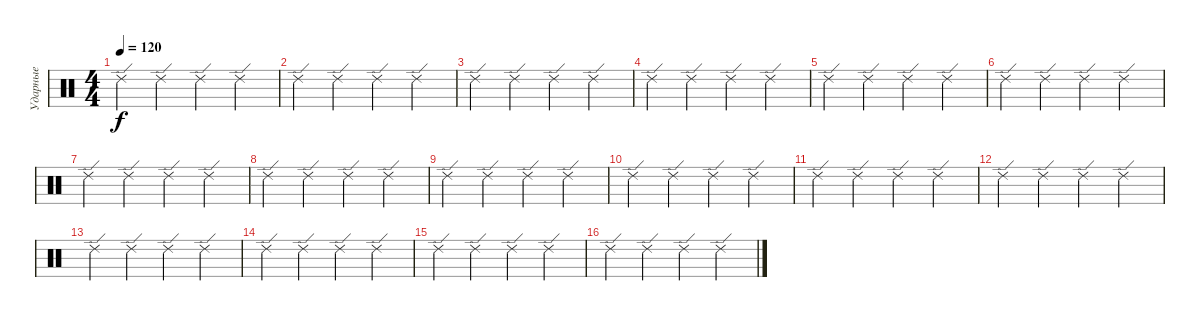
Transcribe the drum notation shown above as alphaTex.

\track ("Ударные" "Ударные") {instrument percussion}
\staff {score}
\articulation defaults
\ts (4 4)
\tempo 120
\clef neutral
\ks c "Ride (edge) 2".4{dy f} "Ride (edge) 2".4 "Ride (edge) 2".4 "Ride (edge) 2".4
|
"Ride (edge) 2".4 "Ride (edge) 2".4 "Ride (edge) 2".4 "Ride (edge) 2".4 |
"Ride (edge) 2".4 "Ride (edge) 2".4 "Ride (edge) 2".4 "Ride (edge) 2".4 |
"Ride (edge) 2".4 "Ride (edge) 2".4 "Ride (edge) 2".4 "Ride (edge) 2".4 |
"Ride (edge) 2".4 "Ride (edge) 2".4 "Ride (edge) 2".4 "Ride (edge) 2".4 |
"Ride (edge) 2".4 "Ride (edge) 2".4 "Ride (edge) 2".4 "Ride (edge) 2".4 |
"Ride (edge) 2".4 "Ride (edge) 2".4 "Ride (edge) 2".4 "Ride (edge) 2".4 |
"Ride (edge) 2".4 "Ride (edge) 2".4 "Ride (edge) 2".4 "Ride (edge) 2".4 |
"Ride (edge) 2".4 "Ride (edge) 2".4 "Ride (edge) 2".4 "Ride (edge) 2".4 |
"Ride (edge) 2".4 "Ride (edge) 2".4 "Ride (edge) 2".4 "Ride (edge) 2".4 |
"Ride (edge) 2".4 "Ride (edge) 2".4 "Ride (edge) 2".4 "Ride (edge) 2".4 |
"Ride (edge) 2".4 "Ride (edge) 2".4 "Ride (edge) 2".4 "Ride (edge) 2".4 |
"Ride (edge) 2".4 "Ride (edge) 2".4 "Ride (edge) 2".4 "Ride (edge) 2".4 |
"Ride (edge) 2".4 "Ride (edge) 2".4 "Ride (edge) 2".4 "Ride (edge) 2".4 |
"Ride (edge) 2".4 "Ride (edge) 2".4 "Ride (edge) 2".4 "Ride (edge) 2".4 |
"Ride (edge) 2".4 "Ride (edge) 2".4 "Ride (edge) 2".4 "Ride (edge) 2".4
